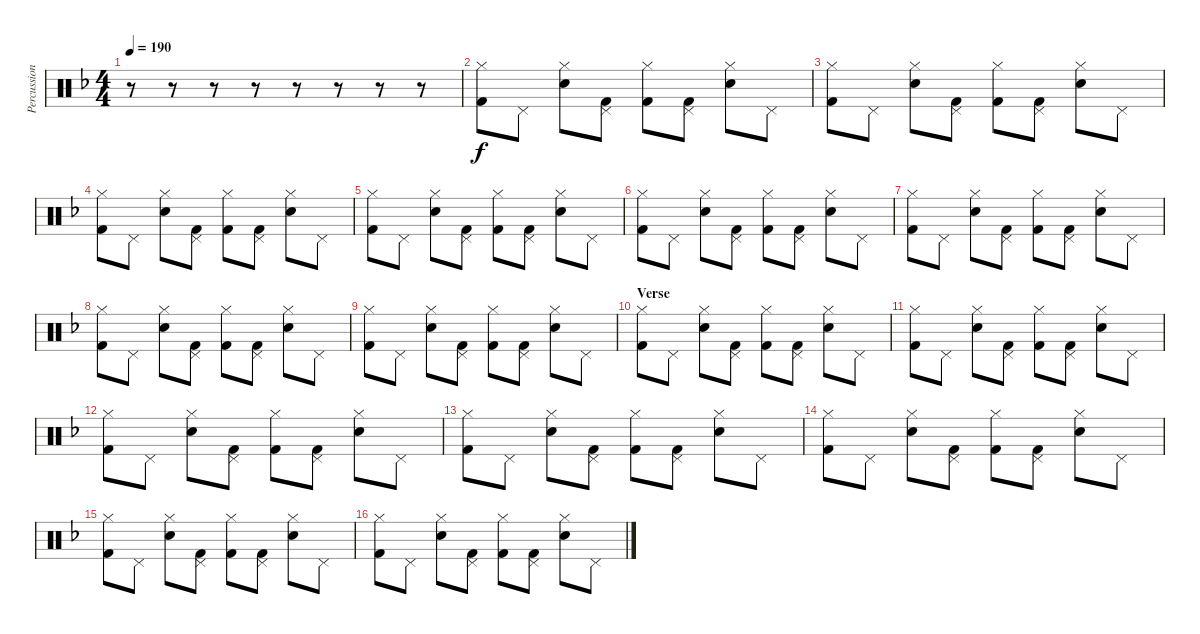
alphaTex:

\track ("Percussion" "Percussion") {instrument percussion}
\staff {score}
\articulation defaults
\ts (4 4)
\tempo 190
\clef neutral
\ks f
r.8{dy f} r.8 r.8 r.8 r.8 r.8 r.8 r.8 |
("Hi-Hat (closed)" "Kick (hit) 2").8 "Pedal Hi-Hat (hit)".8 ("Hi-Hat (closed)" "Snare (hit) 2").8 ("Pedal Hi-Hat (hit)" "Kick (hit) 2").8 ("Hi-Hat (closed)" "Kick (hit) 2").8 ("Pedal Hi-Hat (hit)" "Kick (hit) 2").8 ("Hi-Hat (closed)" "Snare (hit) 2").8 "Pedal Hi-Hat (hit)".8 |
("Hi-Hat (closed)" "Kick (hit) 2").8 "Pedal Hi-Hat (hit)".8 ("Hi-Hat (closed)" "Snare (hit) 2").8 ("Pedal Hi-Hat (hit)" "Kick (hit) 2").8 ("Hi-Hat (closed)" "Kick (hit) 2").8 ("Pedal Hi-Hat (hit)" "Kick (hit) 2").8 ("Hi-Hat (closed)" "Snare (hit) 2").8 "Pedal Hi-Hat (hit)".8 |
("Hi-Hat (closed)" "Kick (hit) 2").8 "Pedal Hi-Hat (hit)".8 ("Hi-Hat (closed)" "Snare (hit) 2").8 ("Pedal Hi-Hat (hit)" "Kick (hit) 2").8 ("Hi-Hat (closed)" "Kick (hit) 2").8 ("Pedal Hi-Hat (hit)" "Kick (hit) 2").8 ("Hi-Hat (closed)" "Snare (hit) 2").8 "Pedal Hi-Hat (hit)".8 |
("Hi-Hat (closed)" "Kick (hit) 2").8 "Pedal Hi-Hat (hit)".8 ("Hi-Hat (closed)" "Snare (hit) 2").8 ("Pedal Hi-Hat (hit)" "Kick (hit) 2").8 ("Hi-Hat (closed)" "Kick (hit) 2").8 ("Pedal Hi-Hat (hit)" "Kick (hit) 2").8 ("Hi-Hat (closed)" "Snare (hit) 2").8 "Pedal Hi-Hat (hit)".8 |
("Hi-Hat (closed)" "Kick (hit) 2").8 "Pedal Hi-Hat (hit)".8 ("Hi-Hat (closed)" "Snare (hit) 2").8 ("Pedal Hi-Hat (hit)" "Kick (hit) 2").8 ("Hi-Hat (closed)" "Kick (hit) 2").8 ("Pedal Hi-Hat (hit)" "Kick (hit) 2").8 ("Hi-Hat (closed)" "Snare (hit) 2").8 "Pedal Hi-Hat (hit)".8 |
("Hi-Hat (closed)" "Kick (hit) 2").8 "Pedal Hi-Hat (hit)".8 ("Hi-Hat (closed)" "Snare (hit) 2").8 ("Pedal Hi-Hat (hit)" "Kick (hit) 2").8 ("Hi-Hat (closed)" "Kick (hit) 2").8 ("Pedal Hi-Hat (hit)" "Kick (hit) 2").8 ("Hi-Hat (closed)" "Snare (hit) 2").8 "Pedal Hi-Hat (hit)".8 |
("Hi-Hat (closed)" "Kick (hit) 2").8 "Pedal Hi-Hat (hit)".8 ("Hi-Hat (closed)" "Snare (hit) 2").8 ("Pedal Hi-Hat (hit)" "Kick (hit) 2").8 ("Hi-Hat (closed)" "Kick (hit) 2").8 ("Pedal Hi-Hat (hit)" "Kick (hit) 2").8 ("Hi-Hat (closed)" "Snare (hit) 2").8 "Pedal Hi-Hat (hit)".8 |
("Hi-Hat (closed)" "Kick (hit) 2").8 "Pedal Hi-Hat (hit)".8 ("Hi-Hat (closed)" "Snare (hit) 2").8 ("Pedal Hi-Hat (hit)" "Kick (hit) 2").8 ("Hi-Hat (closed)" "Kick (hit) 2").8 ("Pedal Hi-Hat (hit)" "Kick (hit) 2").8 ("Hi-Hat (closed)" "Snare (hit) 2").8 "Pedal Hi-Hat (hit)".8 |
\section ("" "Verse")
("Hi-Hat (closed)" "Kick (hit) 2").8 "Pedal Hi-Hat (hit)".8 ("Hi-Hat (closed)" "Snare (hit) 2").8 ("Pedal Hi-Hat (hit)" "Kick (hit) 2").8 ("Hi-Hat (closed)" "Kick (hit) 2").8 ("Pedal Hi-Hat (hit)" "Kick (hit) 2").8 ("Hi-Hat (closed)" "Snare (hit) 2").8 "Pedal Hi-Hat (hit)".8 |
("Hi-Hat (closed)" "Kick (hit) 2").8 "Pedal Hi-Hat (hit)".8 ("Hi-Hat (closed)" "Snare (hit) 2").8 ("Pedal Hi-Hat (hit)" "Kick (hit) 2").8 ("Hi-Hat (closed)" "Kick (hit) 2").8 ("Pedal Hi-Hat (hit)" "Kick (hit) 2").8 ("Hi-Hat (closed)" "Snare (hit) 2").8 "Pedal Hi-Hat (hit)".8 |
("Hi-Hat (closed)" "Kick (hit) 2").8 "Pedal Hi-Hat (hit)".8 ("Hi-Hat (closed)" "Snare (hit) 2").8 ("Pedal Hi-Hat (hit)" "Kick (hit) 2").8 ("Hi-Hat (closed)" "Kick (hit) 2").8 ("Pedal Hi-Hat (hit)" "Kick (hit) 2").8 ("Hi-Hat (closed)" "Snare (hit) 2").8 "Pedal Hi-Hat (hit)".8 |
("Hi-Hat (closed)" "Kick (hit) 2").8 "Pedal Hi-Hat (hit)".8 ("Hi-Hat (closed)" "Snare (hit) 2").8 ("Pedal Hi-Hat (hit)" "Kick (hit) 2").8 ("Hi-Hat (closed)" "Kick (hit) 2").8 ("Pedal Hi-Hat (hit)" "Kick (hit) 2").8 ("Hi-Hat (closed)" "Snare (hit) 2").8 "Pedal Hi-Hat (hit)".8 |
("Hi-Hat (closed)" "Kick (hit) 2").8 "Pedal Hi-Hat (hit)".8 ("Hi-Hat (closed)" "Snare (hit) 2").8 ("Pedal Hi-Hat (hit)" "Kick (hit) 2").8 ("Hi-Hat (closed)" "Kick (hit) 2").8 ("Pedal Hi-Hat (hit)" "Kick (hit) 2").8 ("Hi-Hat (closed)" "Snare (hit) 2").8 "Pedal Hi-Hat (hit)".8 |
("Hi-Hat (closed)" "Kick (hit) 2").8 "Pedal Hi-Hat (hit)".8 ("Hi-Hat (closed)" "Snare (hit) 2").8 ("Pedal Hi-Hat (hit)" "Kick (hit) 2").8 ("Hi-Hat (closed)" "Kick (hit) 2").8 ("Pedal Hi-Hat (hit)" "Kick (hit) 2").8 ("Hi-Hat (closed)" "Snare (hit) 2").8 "Pedal Hi-Hat (hit)".8 |
("Hi-Hat (closed)" "Kick (hit) 2").8 "Pedal Hi-Hat (hit)".8 ("Hi-Hat (closed)" "Snare (hit) 2").8 ("Pedal Hi-Hat (hit)" "Kick (hit) 2").8 ("Hi-Hat (closed)" "Kick (hit) 2").8 ("Pedal Hi-Hat (hit)" "Kick (hit) 2").8 ("Hi-Hat (closed)" "Snare (hit) 2").8 "Pedal Hi-Hat (hit)".8
